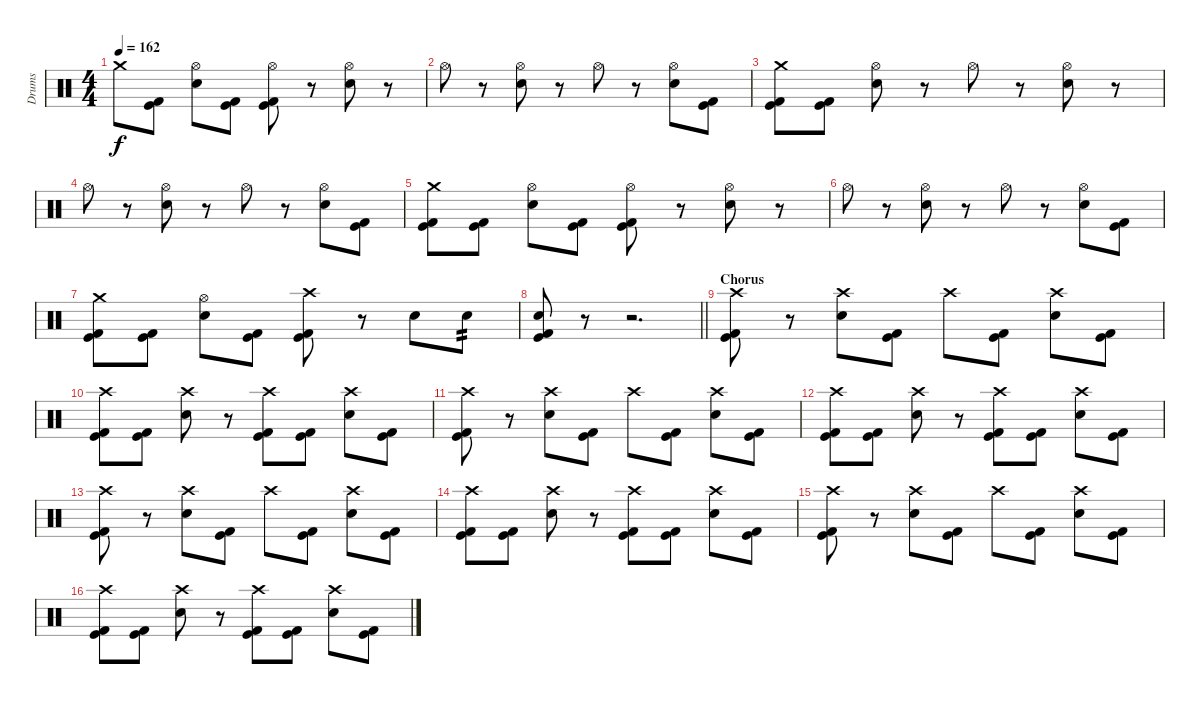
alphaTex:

\track ("Drums" "Drums") {instrument percussion}
\staff {score}
\articulation defaults
\ts (4 4)
\tempo 162
\clef neutral
\ks c "Crash medium (hit)".8{dy f}
("Kick (hit)" "Kick (hit) 2").8 ("Snare (hit) 2" "Hi-Hat (open)").8 ("Kick (hit)" "Kick (hit) 2").8 ("Kick (hit)" "Kick (hit) 2" "Hi-Hat (open)").8 r.8 ("Snare (hit) 2" "Hi-Hat (open)").8 r.8 |
"Hi-Hat (open)".8 r.8 ("Snare (hit) 2" "Hi-Hat (open)").8 r.8 "Hi-Hat (open)".8 r.8 ("Snare (hit) 2" "Hi-Hat (open)").8 ("Kick (hit)" "Kick (hit) 2").8 |
("Kick (hit)" "Kick (hit) 2" "Crash medium (hit)").8 ("Kick (hit)" "Kick (hit) 2").8 ("Snare (hit) 2" "Hi-Hat (open)").8 r.8 "Hi-Hat (open)".8 r.8 ("Snare (hit) 2" "Hi-Hat (open)").8 r.8 |
"Hi-Hat (open)".8 r.8 ("Snare (hit) 2" "Hi-Hat (open)").8 r.8 "Hi-Hat (open)".8 r.8 ("Snare (hit) 2" "Hi-Hat (open)").8 ("Kick (hit)" "Kick (hit) 2").8 |
("Kick (hit)" "Kick (hit) 2" "Crash medium (hit)").8 ("Kick (hit)" "Kick (hit) 2").8 ("Snare (hit) 2" "Hi-Hat (open)").8 ("Kick (hit)" "Kick (hit) 2").8 ("Kick (hit)" "Kick (hit) 2" "Hi-Hat (open)").8 r.8 ("Snare (hit) 2" "Hi-Hat (open)").8 r.8 |
"Hi-Hat (open)".8 r.8 ("Snare (hit) 2" "Hi-Hat (open)").8 r.8 "Hi-Hat (open)".8 r.8 ("Snare (hit) 2" "Hi-Hat (open)").8 ("Kick (hit)" "Kick (hit) 2").8 |
("Kick (hit)" "Kick (hit) 2" "Crash medium (hit)").8 ("Kick (hit)" "Kick (hit) 2").8 ("Snare (hit) 2" "Hi-Hat (open)").8 ("Kick (hit)" "Kick (hit) 2").8 ("Kick (hit)" "Kick (hit) 2" "Crash high (hit)").8 r.8 "Snare (hit) 2".8 "Snare (hit) 2".8{tp 2} |
\barLineRight lightlight
("Kick (hit)" "Kick (hit) 2" "Snare (hit) 2").8 r.8 r.2{d} |
\section ("" "Chorus")
("Kick (hit)" "Kick (hit) 2" "Crash high (hit)").8 r.8 ("Snare (hit) 2" "Crash high (hit)").8 ("Kick (hit)" "Kick (hit) 2").8 "Crash high (hit)".8 ("Kick (hit)" "Kick (hit) 2").8 ("Snare (hit) 2" "Crash high (hit)").8 ("Kick (hit)" "Kick (hit) 2").8 |
("Kick (hit)" "Kick (hit) 2" "Crash high (hit)").8 ("Kick (hit)" "Kick (hit) 2").8 ("Snare (hit) 2" "Crash high (hit)").8 r.8 ("Kick (hit)" "Kick (hit) 2" "Crash high (hit)").8 ("Kick (hit)" "Kick (hit) 2").8 ("Snare (hit) 2" "Crash high (hit)").8 ("Kick (hit)" "Kick (hit) 2").8 |
("Kick (hit)" "Kick (hit) 2" "Crash high (hit)").8 r.8 ("Snare (hit) 2" "Crash high (hit)").8 ("Kick (hit)" "Kick (hit) 2").8 "Crash high (hit)".8 ("Kick (hit)" "Kick (hit) 2").8 ("Snare (hit) 2" "Crash high (hit)").8 ("Kick (hit)" "Kick (hit) 2").8 |
("Kick (hit)" "Kick (hit) 2" "Crash high (hit)").8 ("Kick (hit)" "Kick (hit) 2").8 ("Snare (hit) 2" "Crash high (hit)").8 r.8 ("Kick (hit)" "Kick (hit) 2" "Crash high (hit)").8 ("Kick (hit)" "Kick (hit) 2").8 ("Snare (hit) 2" "Crash high (hit)").8 ("Kick (hit)" "Kick (hit) 2").8 |
("Kick (hit)" "Kick (hit) 2" "Crash high (hit)").8 r.8 ("Snare (hit) 2" "Crash high (hit)").8 ("Kick (hit)" "Kick (hit) 2").8 "Crash high (hit)".8 ("Kick (hit)" "Kick (hit) 2").8 ("Snare (hit) 2" "Crash high (hit)").8 ("Kick (hit)" "Kick (hit) 2").8 |
("Kick (hit)" "Kick (hit) 2" "Crash high (hit)").8 ("Kick (hit)" "Kick (hit) 2").8 ("Snare (hit) 2" "Crash high (hit)").8 r.8 ("Kick (hit)" "Kick (hit) 2" "Crash high (hit)").8 ("Kick (hit)" "Kick (hit) 2").8 ("Snare (hit) 2" "Crash high (hit)").8 ("Kick (hit)" "Kick (hit) 2").8 |
("Kick (hit)" "Kick (hit) 2" "Crash high (hit)").8 r.8 ("Snare (hit) 2" "Crash high (hit)").8 ("Kick (hit)" "Kick (hit) 2").8 "Crash high (hit)".8 ("Kick (hit)" "Kick (hit) 2").8 ("Snare (hit) 2" "Crash high (hit)").8 ("Kick (hit)" "Kick (hit) 2").8 |
("Kick (hit)" "Kick (hit) 2" "Crash high (hit)").8 ("Kick (hit)" "Kick (hit) 2").8 ("Snare (hit) 2" "Crash high (hit)").8 r.8 ("Kick (hit)" "Kick (hit) 2" "Crash high (hit)").8 ("Kick (hit)" "Kick (hit) 2").8 ("Snare (hit) 2" "Crash high (hit)").8 ("Kick (hit)" "Kick (hit) 2").8
